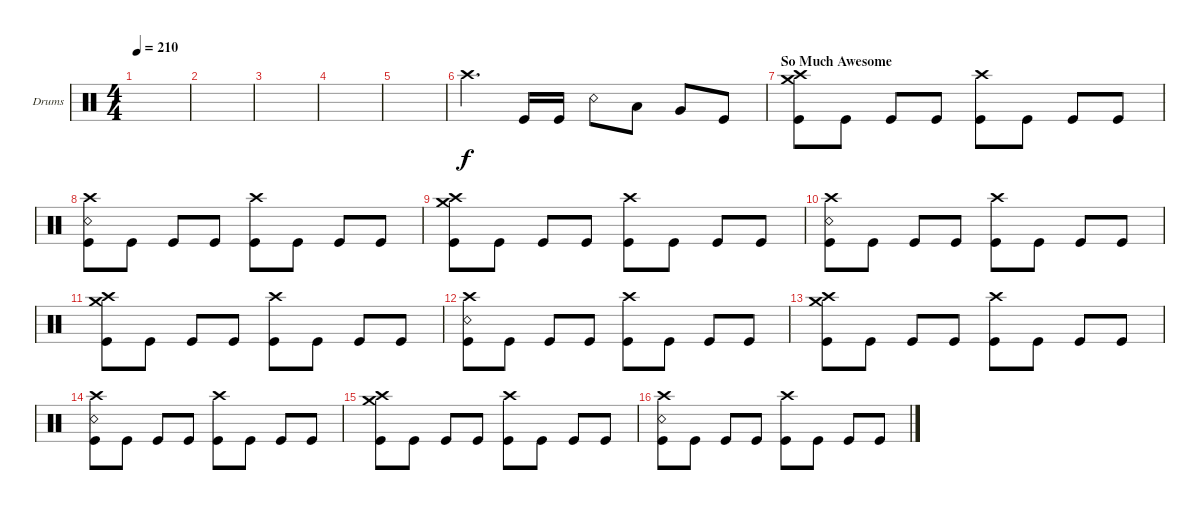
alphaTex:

\defaultSystemsLayout 4
\bracketExtendMode groupsimilarinstruments
\firstSystemTrackNameOrientation horizontal
\otherSystemsTrackNameOrientation horizontal
\track ("Drums" "Drums") {instrument percussion}
\staff {score}
\articulation defaults
\ts (4 4)
\tempo 210
\clef neutral
\ks c
|
|
|
|
|
"Crash high (hit)".4{d} "Kick (hit)".16 "Kick (hit)".16 "Snare (rim shot)".8 "Low Tom (hit)".8 "Very Low Tom (hit)".8 "Kick (hit)".8 |
\section ("" "So Much Awesome")
("Crash high (hit)" "Kick (hit)" "Crash medium (hit)").8 "Kick (hit)".8 "Kick (hit)".8 "Kick (hit)".8 ("Kick (hit)" "Crash high (hit)").8 "Kick (hit)".8 "Kick (hit)".8 "Kick (hit)".8 |
("Crash high (hit)" "Kick (hit)" "Snare (rim shot)").8 "Kick (hit)".8 "Kick (hit)".8 "Kick (hit)".8 ("Kick (hit)" "Crash high (hit)").8 "Kick (hit)".8 "Kick (hit)".8 "Kick (hit)".8 |
("Crash high (hit)" "Kick (hit)" "Crash medium (hit)").8 "Kick (hit)".8 "Kick (hit)".8 "Kick (hit)".8 ("Kick (hit)" "Crash high (hit)").8 "Kick (hit)".8 "Kick (hit)".8 "Kick (hit)".8 |
("Crash high (hit)" "Kick (hit)" "Snare (rim shot)").8 "Kick (hit)".8 "Kick (hit)".8 "Kick (hit)".8 ("Kick (hit)" "Crash high (hit)").8 "Kick (hit)".8 "Kick (hit)".8 "Kick (hit)".8 |
("Crash high (hit)" "Kick (hit)" "Crash medium (hit)").8 "Kick (hit)".8 "Kick (hit)".8 "Kick (hit)".8 ("Kick (hit)" "Crash high (hit)").8 "Kick (hit)".8 "Kick (hit)".8 "Kick (hit)".8 |
("Crash high (hit)" "Kick (hit)" "Snare (rim shot)").8 "Kick (hit)".8 "Kick (hit)".8 "Kick (hit)".8 ("Kick (hit)" "Crash high (hit)").8 "Kick (hit)".8 "Kick (hit)".8 "Kick (hit)".8 |
("Crash high (hit)" "Kick (hit)" "Crash medium (hit)").8 "Kick (hit)".8 "Kick (hit)".8 "Kick (hit)".8 ("Kick (hit)" "Crash high (hit)").8 "Kick (hit)".8 "Kick (hit)".8 "Kick (hit)".8 |
("Crash high (hit)" "Kick (hit)" "Snare (rim shot)").8 "Kick (hit)".8 "Kick (hit)".8 "Kick (hit)".8 ("Kick (hit)" "Crash high (hit)").8 "Kick (hit)".8 "Kick (hit)".8 "Kick (hit)".8 |
("Crash high (hit)" "Kick (hit)" "Crash medium (hit)").8 "Kick (hit)".8 "Kick (hit)".8 "Kick (hit)".8 ("Kick (hit)" "Crash high (hit)").8 "Kick (hit)".8 "Kick (hit)".8 "Kick (hit)".8 |
("Crash high (hit)" "Kick (hit)" "Snare (rim shot)").8 "Kick (hit)".8 "Kick (hit)".8 "Kick (hit)".8 ("Kick (hit)" "Crash high (hit)").8 "Kick (hit)".8 "Kick (hit)".8 "Kick (hit)".8
